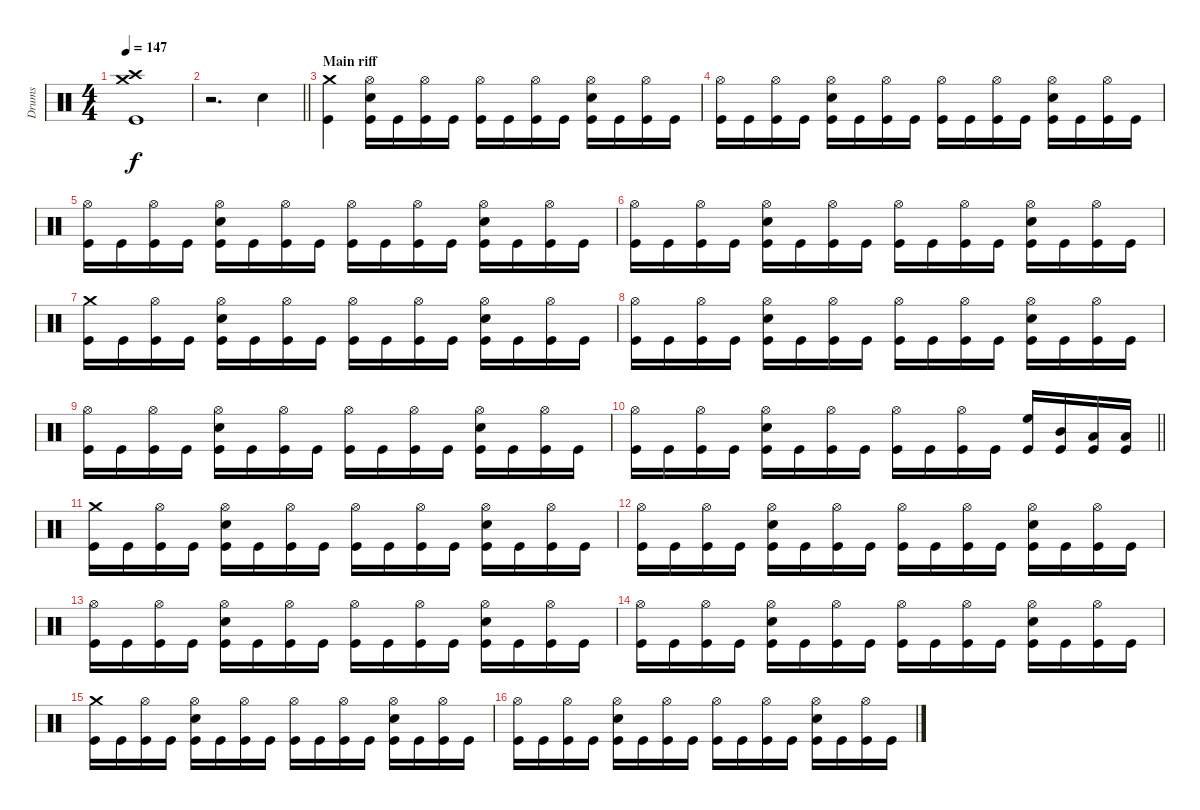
\track ("Drums" "Drums") {instrument percussion}
\staff {score}
\articulation defaults
\ts (4 4)
\tempo 147
\clef neutral
\ks c
("Crash high (hit)" "Crash medium (hit)" "Kick (hit)").1{dy f} |
\barLineRight lightlight
r.2{d} "Electric Snare (hit)".4 |
\section ("" "Main riff")
("Crash medium (hit)" "Kick (hit)").4 ("Electric Snare (hit)" "Hi-Hat (open)" "Kick (hit)").16 "Kick (hit)".16 ("Hi-Hat (open)" "Kick (hit)").16 "Kick (hit)".16 ("Hi-Hat (open)" "Kick (hit)").16 "Kick (hit)".16 ("Hi-Hat (open)" "Kick (hit)").16 "Kick (hit)".16 ("Electric Snare (hit)" "Hi-Hat (open)" "Kick (hit)").16 "Kick (hit)".16 ("Hi-Hat (open)" "Kick (hit)").16 "Kick (hit)".16 |
("Hi-Hat (open)" "Kick (hit)").16 "Kick (hit)".16 ("Hi-Hat (open)" "Kick (hit)").16 "Kick (hit)".16 ("Electric Snare (hit)" "Hi-Hat (open)" "Kick (hit)").16 "Kick (hit)".16 ("Hi-Hat (open)" "Kick (hit)").16 "Kick (hit)".16 ("Hi-Hat (open)" "Kick (hit)").16 "Kick (hit)".16 ("Hi-Hat (open)" "Kick (hit)").16 "Kick (hit)".16 ("Electric Snare (hit)" "Hi-Hat (open)" "Kick (hit)").16 "Kick (hit)".16 ("Hi-Hat (open)" "Kick (hit)").16 "Kick (hit)".16 |
("Hi-Hat (open)" "Kick (hit)").16 "Kick (hit)".16 ("Hi-Hat (open)" "Kick (hit)").16 "Kick (hit)".16 ("Electric Snare (hit)" "Hi-Hat (open)" "Kick (hit)").16 "Kick (hit)".16 ("Hi-Hat (open)" "Kick (hit)").16 "Kick (hit)".16 ("Hi-Hat (open)" "Kick (hit)").16 "Kick (hit)".16 ("Hi-Hat (open)" "Kick (hit)").16 "Kick (hit)".16 ("Electric Snare (hit)" "Hi-Hat (open)" "Kick (hit)").16 "Kick (hit)".16 ("Hi-Hat (open)" "Kick (hit)").16 "Kick (hit)".16 |
("Hi-Hat (open)" "Kick (hit)").16 "Kick (hit)".16 ("Hi-Hat (open)" "Kick (hit)").16 "Kick (hit)".16 ("Electric Snare (hit)" "Hi-Hat (open)" "Kick (hit)").16 "Kick (hit)".16 ("Hi-Hat (open)" "Kick (hit)").16 "Kick (hit)".16 ("Hi-Hat (open)" "Kick (hit)").16 "Kick (hit)".16 ("Hi-Hat (open)" "Kick (hit)").16 "Kick (hit)".16 ("Electric Snare (hit)" "Hi-Hat (open)" "Kick (hit)").16 "Kick (hit)".16 ("Hi-Hat (open)" "Kick (hit)").16 "Kick (hit)".16 |
("Crash medium (hit)" "Kick (hit)").16 "Kick (hit)".16 ("Hi-Hat (open)" "Kick (hit)").16 "Kick (hit)".16 ("Electric Snare (hit)" "Hi-Hat (open)" "Kick (hit)").16 "Kick (hit)".16 ("Hi-Hat (open)" "Kick (hit)").16 "Kick (hit)".16 ("Hi-Hat (open)" "Kick (hit)").16 "Kick (hit)".16 ("Hi-Hat (open)" "Kick (hit)").16 "Kick (hit)".16 ("Electric Snare (hit)" "Hi-Hat (open)" "Kick (hit)").16 "Kick (hit)".16 ("Hi-Hat (open)" "Kick (hit)").16 "Kick (hit)".16 |
("Hi-Hat (open)" "Kick (hit)").16 "Kick (hit)".16 ("Hi-Hat (open)" "Kick (hit)").16 "Kick (hit)".16 ("Electric Snare (hit)" "Hi-Hat (open)" "Kick (hit)").16 "Kick (hit)".16 ("Hi-Hat (open)" "Kick (hit)").16 "Kick (hit)".16 ("Hi-Hat (open)" "Kick (hit)").16 "Kick (hit)".16 ("Hi-Hat (open)" "Kick (hit)").16 "Kick (hit)".16 ("Electric Snare (hit)" "Hi-Hat (open)" "Kick (hit)").16 "Kick (hit)".16 ("Hi-Hat (open)" "Kick (hit)").16 "Kick (hit)".16 |
("Hi-Hat (open)" "Kick (hit)").16 "Kick (hit)".16 ("Hi-Hat (open)" "Kick (hit)").16 "Kick (hit)".16 ("Electric Snare (hit)" "Hi-Hat (open)" "Kick (hit)").16 "Kick (hit)".16 ("Hi-Hat (open)" "Kick (hit)").16 "Kick (hit)".16 ("Hi-Hat (open)" "Kick (hit)").16 "Kick (hit)".16 ("Hi-Hat (open)" "Kick (hit)").16 "Kick (hit)".16 ("Electric Snare (hit)" "Hi-Hat (open)" "Kick (hit)").16 "Kick (hit)".16 ("Hi-Hat (open)" "Kick (hit)").16 "Kick (hit)".16 |
\barLineRight lightlight
("Hi-Hat (open)" "Kick (hit)").16 "Kick (hit)".16 ("Hi-Hat (open)" "Kick (hit)").16 "Kick (hit)".16 ("Electric Snare (hit)" "Hi-Hat (open)" "Kick (hit)").16 "Kick (hit)".16 ("Hi-Hat (open)" "Kick (hit)").16 "Kick (hit)".16 ("Hi-Hat (open)" "Kick (hit)").16 "Kick (hit)".16 ("Hi-Hat (open)" "Kick (hit)").16 "Kick (hit)".16 ("High Floor Tom (hit)" "Kick (hit)").16 ("Mid Tom (hit)" "Kick (hit)").16 ("Low Tom (hit)" "Kick (hit)").16 ("Low Floor Tom (hit)" "Kick (hit)").16 |
("Crash medium (hit)" "Kick (hit)").16 "Kick (hit)".16 ("Hi-Hat (open)" "Kick (hit)").16 "Kick (hit)".16 ("Electric Snare (hit)" "Hi-Hat (open)" "Kick (hit)").16 "Kick (hit)".16 ("Hi-Hat (open)" "Kick (hit)").16 "Kick (hit)".16 ("Hi-Hat (open)" "Kick (hit)").16 "Kick (hit)".16 ("Hi-Hat (open)" "Kick (hit)").16 "Kick (hit)".16 ("Electric Snare (hit)" "Hi-Hat (open)" "Kick (hit)").16 "Kick (hit)".16 ("Hi-Hat (open)" "Kick (hit)").16 "Kick (hit)".16 |
("Hi-Hat (open)" "Kick (hit)").16 "Kick (hit)".16 ("Hi-Hat (open)" "Kick (hit)").16 "Kick (hit)".16 ("Electric Snare (hit)" "Hi-Hat (open)" "Kick (hit)").16 "Kick (hit)".16 ("Hi-Hat (open)" "Kick (hit)").16 "Kick (hit)".16 ("Hi-Hat (open)" "Kick (hit)").16 "Kick (hit)".16 ("Hi-Hat (open)" "Kick (hit)").16 "Kick (hit)".16 ("Electric Snare (hit)" "Hi-Hat (open)" "Kick (hit)").16 "Kick (hit)".16 ("Hi-Hat (open)" "Kick (hit)").16 "Kick (hit)".16 |
("Hi-Hat (open)" "Kick (hit)").16 "Kick (hit)".16 ("Hi-Hat (open)" "Kick (hit)").16 "Kick (hit)".16 ("Electric Snare (hit)" "Hi-Hat (open)" "Kick (hit)").16 "Kick (hit)".16 ("Hi-Hat (open)" "Kick (hit)").16 "Kick (hit)".16 ("Hi-Hat (open)" "Kick (hit)").16 "Kick (hit)".16 ("Hi-Hat (open)" "Kick (hit)").16 "Kick (hit)".16 ("Electric Snare (hit)" "Hi-Hat (open)" "Kick (hit)").16 "Kick (hit)".16 ("Hi-Hat (open)" "Kick (hit)").16 "Kick (hit)".16 |
("Hi-Hat (open)" "Kick (hit)").16 "Kick (hit)".16 ("Hi-Hat (open)" "Kick (hit)").16 "Kick (hit)".16 ("Electric Snare (hit)" "Hi-Hat (open)" "Kick (hit)").16 "Kick (hit)".16 ("Hi-Hat (open)" "Kick (hit)").16 "Kick (hit)".16 ("Hi-Hat (open)" "Kick (hit)").16 "Kick (hit)".16 ("Hi-Hat (open)" "Kick (hit)").16 "Kick (hit)".16 ("Electric Snare (hit)" "Hi-Hat (open)" "Kick (hit)").16 "Kick (hit)".16 ("Hi-Hat (open)" "Kick (hit)").16 "Kick (hit)".16 |
("Crash medium (hit)" "Kick (hit)").16 "Kick (hit)".16 ("Hi-Hat (open)" "Kick (hit)").16 "Kick (hit)".16 ("Electric Snare (hit)" "Hi-Hat (open)" "Kick (hit)").16 "Kick (hit)".16 ("Hi-Hat (open)" "Kick (hit)").16 "Kick (hit)".16 ("Hi-Hat (open)" "Kick (hit)").16 "Kick (hit)".16 ("Hi-Hat (open)" "Kick (hit)").16 "Kick (hit)".16 ("Electric Snare (hit)" "Hi-Hat (open)" "Kick (hit)").16 "Kick (hit)".16 ("Hi-Hat (open)" "Kick (hit)").16 "Kick (hit)".16 |
("Hi-Hat (open)" "Kick (hit)").16 "Kick (hit)".16 ("Hi-Hat (open)" "Kick (hit)").16 "Kick (hit)".16 ("Electric Snare (hit)" "Hi-Hat (open)" "Kick (hit)").16 "Kick (hit)".16 ("Hi-Hat (open)" "Kick (hit)").16 "Kick (hit)".16 ("Hi-Hat (open)" "Kick (hit)").16 "Kick (hit)".16 ("Hi-Hat (open)" "Kick (hit)").16 "Kick (hit)".16 ("Electric Snare (hit)" "Hi-Hat (open)" "Kick (hit)").16 "Kick (hit)".16 ("Hi-Hat (open)" "Kick (hit)").16 "Kick (hit)".16
